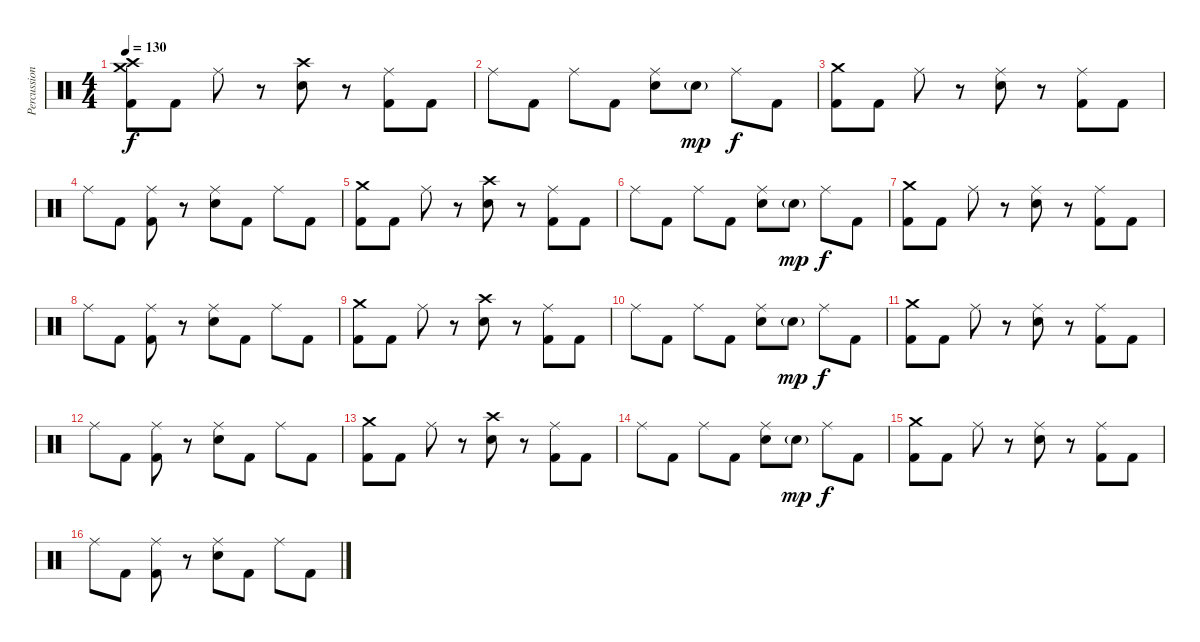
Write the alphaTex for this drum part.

\track ("Percussion" "Percussion") {instrument percussion}
\staff {score}
\articulation defaults
\ts (4 4)
\tempo 130
\clef neutral
\ks c
("Crash medium (hit)" "Crash high (hit)" "Kick (hit) 2").8{dy f} "Kick (hit) 2".8 "Ride (middle)".8 r.8 ("Crash high (hit)" "Snare (hit) 2").8 r.8 ("Ride (middle)" "Kick (hit) 2").8 "Kick (hit) 2".8 |
"Ride (middle)".8 "Kick (hit) 2".8 "Ride (middle)".8 "Kick (hit) 2".8 ("Ride (middle)" "Snare (hit) 2").8 "Snare (hit) 2"{g}.8{dy mp} "Ride (middle)".8{dy f} "Kick (hit) 2".8 |
("Crash medium (hit)" "Kick (hit) 2").8 "Kick (hit) 2".8 "Ride (middle)".8 r.8 ("Ride (middle)" "Snare (hit) 2").8 r.8 ("Ride (middle)" "Kick (hit) 2").8 "Kick (hit) 2".8 |
"Ride (middle)".8 "Kick (hit) 2".8 ("Ride (middle)" "Kick (hit) 2").8 r.8 ("Ride (middle)" "Snare (hit) 2").8 "Kick (hit) 2".8 "Ride (middle)".8 "Kick (hit) 2".8 |
("Crash medium (hit)" "Kick (hit) 2").8 "Kick (hit) 2".8 "Ride (middle)".8 r.8 ("Crash high (hit)" "Snare (hit) 2").8 r.8 ("Ride (middle)" "Kick (hit) 2").8 "Kick (hit) 2".8 |
"Ride (middle)".8 "Kick (hit) 2".8 "Ride (middle)".8 "Kick (hit) 2".8 ("Ride (middle)" "Snare (hit) 2").8 "Snare (hit) 2"{g}.8{dy mp} "Ride (middle)".8{dy f} "Kick (hit) 2".8 |
("Crash medium (hit)" "Kick (hit) 2").8 "Kick (hit) 2".8 "Ride (middle)".8 r.8 ("Ride (middle)" "Snare (hit) 2").8 r.8 ("Ride (middle)" "Kick (hit) 2").8 "Kick (hit) 2".8 |
"Ride (middle)".8 "Kick (hit) 2".8 ("Ride (middle)" "Kick (hit) 2").8 r.8 ("Ride (middle)" "Snare (hit) 2").8 "Kick (hit) 2".8 "Ride (middle)".8 "Kick (hit) 2".8 |
("Crash medium (hit)" "Kick (hit) 2").8 "Kick (hit) 2".8 "Ride (middle)".8 r.8 ("Crash high (hit)" "Snare (hit) 2").8 r.8 ("Ride (middle)" "Kick (hit) 2").8 "Kick (hit) 2".8 |
"Ride (middle)".8 "Kick (hit) 2".8 "Ride (middle)".8 "Kick (hit) 2".8 ("Ride (middle)" "Snare (hit) 2").8 "Snare (hit) 2"{g}.8{dy mp} "Ride (middle)".8{dy f} "Kick (hit) 2".8 |
("Crash medium (hit)" "Kick (hit) 2").8 "Kick (hit) 2".8 "Ride (middle)".8 r.8 ("Ride (middle)" "Snare (hit) 2").8 r.8 ("Ride (middle)" "Kick (hit) 2").8 "Kick (hit) 2".8 |
"Ride (middle)".8 "Kick (hit) 2".8 ("Ride (middle)" "Kick (hit) 2").8 r.8 ("Ride (middle)" "Snare (hit) 2").8 "Kick (hit) 2".8 "Ride (middle)".8 "Kick (hit) 2".8 |
("Crash medium (hit)" "Kick (hit) 2").8 "Kick (hit) 2".8 "Ride (middle)".8 r.8 ("Crash high (hit)" "Snare (hit) 2").8 r.8 ("Ride (middle)" "Kick (hit) 2").8 "Kick (hit) 2".8 |
"Ride (middle)".8 "Kick (hit) 2".8 "Ride (middle)".8 "Kick (hit) 2".8 ("Ride (middle)" "Snare (hit) 2").8 "Snare (hit) 2"{g}.8{dy mp} "Ride (middle)".8{dy f} "Kick (hit) 2".8 |
("Crash medium (hit)" "Kick (hit) 2").8 "Kick (hit) 2".8 "Ride (middle)".8 r.8 ("Ride (middle)" "Snare (hit) 2").8 r.8 ("Ride (middle)" "Kick (hit) 2").8 "Kick (hit) 2".8 |
"Ride (middle)".8 "Kick (hit) 2".8 ("Ride (middle)" "Kick (hit) 2").8 r.8 ("Ride (middle)" "Snare (hit) 2").8 "Kick (hit) 2".8 "Ride (middle)".8 "Kick (hit) 2".8
